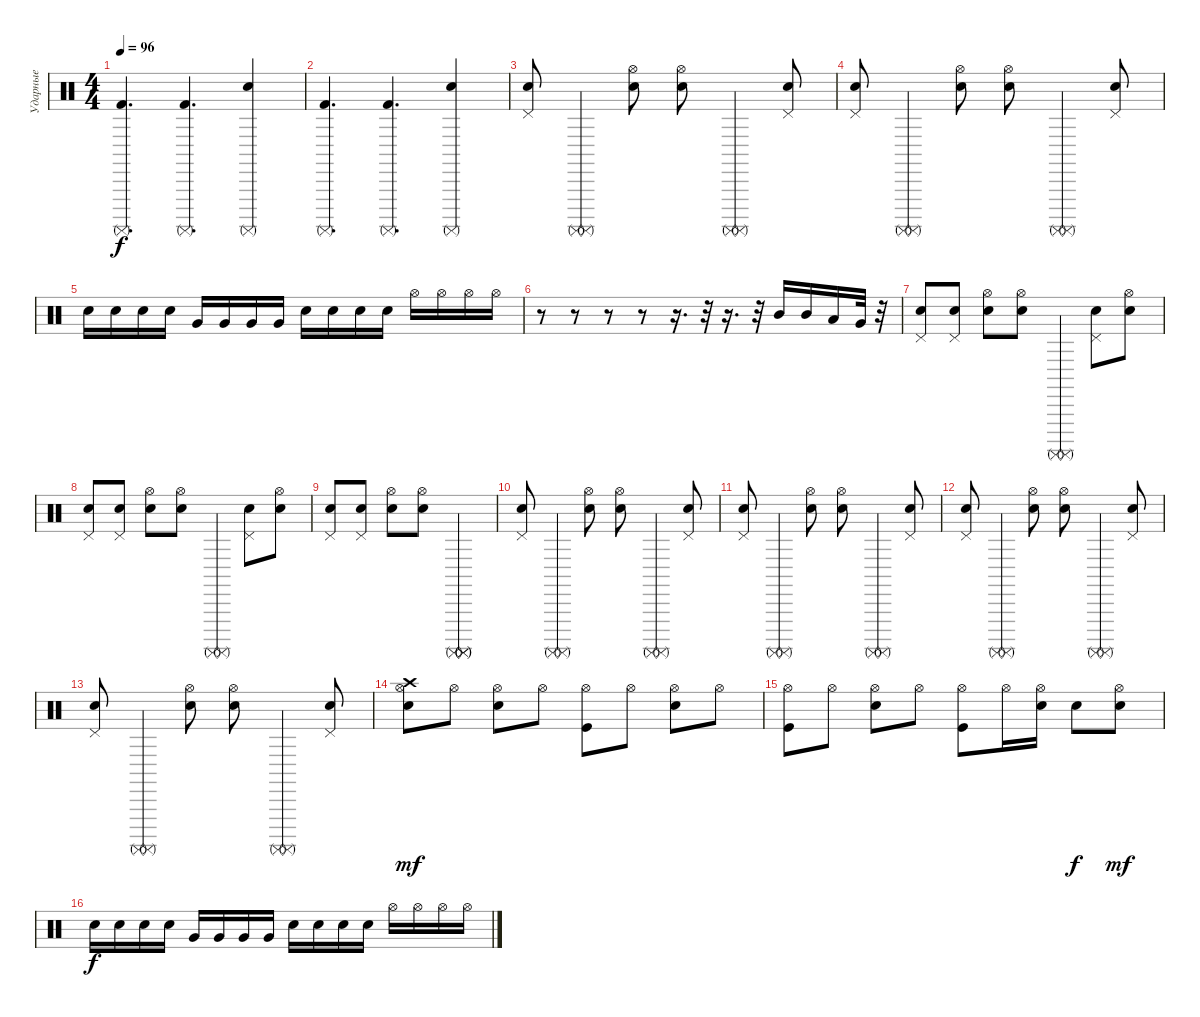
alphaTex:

\track ("Ударные" "Ударные") {solo instrument percussion}
\staff {score}
\articulation defaults
\ts (4 4)
\tempo 96
\clef neutral
\ks c
("Kick (hit) 2" "Surdo (mute)").4{d dy f} ("Kick (hit) 2" "Surdo (mute)").4{d} ("Snare (hit) 2" "Surdo (mute)").4 |
("Kick (hit) 2" "Surdo (mute)").4{d} ("Kick (hit) 2" "Surdo (mute)").4{d} ("Snare (hit) 2" "Surdo (mute)").4 |
("Snare (hit) 2" "Pedal Hi-Hat (hit)").8 ("Surdo (mute)" "Surdo (mute)").4 ("Electric Snare (hit)" "Hi-Hat (open)").8 ("Electric Snare (hit)" "Hi-Hat (open)").8 ("Surdo (mute)" "Surdo (mute)").4 ("Snare (hit) 2" "Pedal Hi-Hat (hit)").8 |
("Snare (hit) 2" "Pedal Hi-Hat (hit)").8 ("Surdo (mute)" "Surdo (mute)").4 ("Electric Snare (hit)" "Hi-Hat (open)").8 ("Electric Snare (hit)" "Hi-Hat (open)").8 ("Surdo (mute)" "Surdo (mute)").4 ("Snare (hit) 2" "Pedal Hi-Hat (hit)").8 |
"Electric Snare (hit)".16 "Electric Snare (hit)".16 "Electric Snare (hit)".16 "Electric Snare (hit)".16 "Very Low Tom (hit)".16 "Very Low Tom (hit)".16 "Very Low Tom (hit)".16 "Very Low Tom (hit)".16 "Snare (hit) 2".16 "Snare (hit) 2".16 "Snare (hit) 2".16 "Snare (hit) 2".16 "Hi-Hat (open)".16 "Hi-Hat (open)".16 "Hi-Hat (open)".16 "Hi-Hat (open)".16 |
r.8 r.8 r.8 r.8 r.16{d} r.32 r.16{d} r.32 "Mid Tom (hit)".16 "Mid Tom (hit)".16 "Low Tom (hit)".16 "Very Low Tom (hit)".32 r.32 |
("Snare (hit) 2" "Pedal Hi-Hat (hit)").8 ("Snare (hit) 2" "Pedal Hi-Hat (hit)").8 ("Electric Snare (hit)" "Hi-Hat (open)").8 ("Electric Snare (hit)" "Hi-Hat (open)").8 ("Surdo (mute)" "Surdo (mute)").4 ("Snare (hit) 2" "Pedal Hi-Hat (hit)").8 ("Snare (hit) 2" "Hi-Hat (open)").8 |
("Snare (hit) 2" "Pedal Hi-Hat (hit)").8 ("Snare (hit) 2" "Pedal Hi-Hat (hit)").8 ("Electric Snare (hit)" "Hi-Hat (open)").8 ("Electric Snare (hit)" "Hi-Hat (open)").8 ("Surdo (mute)" "Surdo (mute)").4 ("Snare (hit) 2" "Pedal Hi-Hat (hit)").8 ("Snare (hit) 2" "Hi-Hat (open)").8 |
("Snare (hit) 2" "Pedal Hi-Hat (hit)").8 ("Snare (hit) 2" "Pedal Hi-Hat (hit)").8 ("Electric Snare (hit)" "Hi-Hat (open)").8 ("Electric Snare (hit)" "Hi-Hat (open)").8 ("Surdo (mute)" "Surdo (mute)" "Surdo (mute)").2 |
("Snare (hit) 2" "Pedal Hi-Hat (hit)").8 ("Surdo (mute)" "Surdo (mute)").4 ("Electric Snare (hit)" "Hi-Hat (open)").8 ("Electric Snare (hit)" "Hi-Hat (open)").8 ("Surdo (mute)" "Surdo (mute)").4 ("Snare (hit) 2" "Pedal Hi-Hat (hit)").8 |
("Snare (hit) 2" "Pedal Hi-Hat (hit)").8 ("Surdo (mute)" "Surdo (mute)").4 ("Electric Snare (hit)" "Hi-Hat (open)").8 ("Electric Snare (hit)" "Hi-Hat (open)").8 ("Surdo (mute)" "Surdo (mute)").4 ("Snare (hit) 2" "Pedal Hi-Hat (hit)").8 |
("Snare (hit) 2" "Pedal Hi-Hat (hit)").8 ("Surdo (mute)" "Surdo (mute)").4 ("Electric Snare (hit)" "Hi-Hat (open)").8 ("Electric Snare (hit)" "Hi-Hat (open)").8 ("Surdo (mute)" "Surdo (mute)").4 ("Snare (hit) 2" "Pedal Hi-Hat (hit)").8 |
("Snare (hit) 2" "Pedal Hi-Hat (hit)").8 ("Surdo (mute)" "Surdo (mute)").4 ("Electric Snare (hit)" "Hi-Hat (open)").8 ("Electric Snare (hit)" "Hi-Hat (open)").8 ("Surdo (mute)" "Surdo (mute)").4 ("Snare (hit) 2" "Pedal Hi-Hat (hit)").8 |
("Crash high (hit)" "Electric Snare (hit)" "Hi-Hat (open)").8{dy mf} "Hi-Hat (open)".8 ("Electric Snare (hit)" "Hi-Hat (open)").8 "Hi-Hat (open)".8 ("Kick (hit)" "Hi-Hat (open)").8 "Hi-Hat (open)".8 ("Electric Snare (hit)" "Hi-Hat (open)").8 "Hi-Hat (open)".8 |
("Kick (hit)" "Hi-Hat (open)").8 "Hi-Hat (open)".8 ("Electric Snare (hit)" "Hi-Hat (open)").8 "Hi-Hat (open)".8 ("Kick (hit)" "Hi-Hat (open)").8 "Hi-Hat (open)".16 ("Electric Snare (hit)" "Hi-Hat (open)").16 "Electric Snare (hit)".8{dy f} ("Electric Snare (hit)" "Hi-Hat (open)").8{dy mf} |
"Electric Snare (hit)".16{dy f} "Electric Snare (hit)".16 "Electric Snare (hit)".16 "Electric Snare (hit)".16 "Very Low Tom (hit)".16 "Very Low Tom (hit)".16 "Very Low Tom (hit)".16 "Very Low Tom (hit)".16 "Snare (hit) 2".16 "Snare (hit) 2".16 "Snare (hit) 2".16 "Snare (hit) 2".16 "Hi-Hat (open)".16 "Hi-Hat (open)".16 "Hi-Hat (open)".16 "Hi-Hat (open)".16
